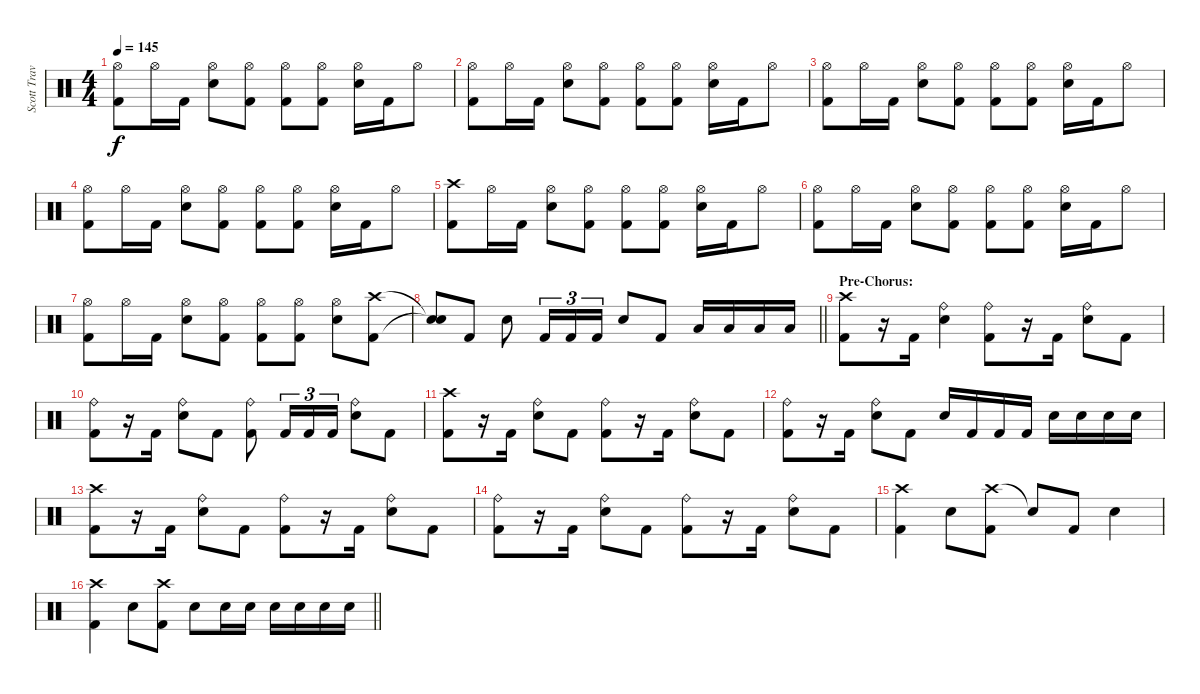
\track ("Scott Travis" "Scott Trav") {instrument percussion}
\staff {score}
\articulation defaults
\ts (4 4)
\tempo 145
\clef neutral
\ks c
("Hi-Hat (open)" "Kick (hit) 2").8{dy f} "Hi-Hat (open)".16 "Kick (hit) 2".16 ("Hi-Hat (open)" "Snare (hit) 2").8 ("Hi-Hat (open)" "Kick (hit) 2").8 ("Hi-Hat (open)" "Kick (hit) 2").8 ("Hi-Hat (open)" "Kick (hit) 2").8 ("Hi-Hat (open)" "Snare (hit) 2").16 "Kick (hit) 2".16 "Hi-Hat (open)".8 |
("Hi-Hat (open)" "Kick (hit) 2").8 "Hi-Hat (open)".16 "Kick (hit) 2".16 ("Hi-Hat (open)" "Snare (hit) 2").8 ("Hi-Hat (open)" "Kick (hit) 2").8 ("Hi-Hat (open)" "Kick (hit) 2").8 ("Hi-Hat (open)" "Kick (hit) 2").8 ("Hi-Hat (open)" "Snare (hit) 2").16 "Kick (hit) 2".16 "Hi-Hat (open)".8 |
("Hi-Hat (open)" "Kick (hit) 2").8 "Hi-Hat (open)".16 "Kick (hit) 2".16 ("Hi-Hat (open)" "Snare (hit) 2").8 ("Hi-Hat (open)" "Kick (hit) 2").8 ("Hi-Hat (open)" "Kick (hit) 2").8 ("Hi-Hat (open)" "Kick (hit) 2").8 ("Hi-Hat (open)" "Snare (hit) 2").16 "Kick (hit) 2".16 "Hi-Hat (open)".8 |
("Hi-Hat (open)" "Kick (hit) 2").8 "Hi-Hat (open)".16 "Kick (hit) 2".16 ("Hi-Hat (open)" "Snare (hit) 2").8 ("Hi-Hat (open)" "Kick (hit) 2").8 ("Hi-Hat (open)" "Kick (hit) 2").8 ("Hi-Hat (open)" "Kick (hit) 2").8 ("Hi-Hat (open)" "Snare (hit) 2").16 "Kick (hit) 2".16 "Hi-Hat (open)".8 |
("Crash high (hit)" "Kick (hit) 2").8 "Hi-Hat (open)".16 "Kick (hit) 2".16 ("Hi-Hat (open)" "Snare (hit) 2").8 ("Hi-Hat (open)" "Kick (hit) 2").8 ("Hi-Hat (open)" "Kick (hit) 2").8 ("Hi-Hat (open)" "Kick (hit) 2").8 ("Hi-Hat (open)" "Snare (hit) 2").16 "Kick (hit) 2".16 "Hi-Hat (open)".8 |
("Hi-Hat (open)" "Kick (hit) 2").8 "Hi-Hat (open)".16 "Kick (hit) 2".16 ("Hi-Hat (open)" "Snare (hit) 2").8 ("Hi-Hat (open)" "Kick (hit) 2").8 ("Hi-Hat (open)" "Kick (hit) 2").8 ("Hi-Hat (open)" "Kick (hit) 2").8 ("Hi-Hat (open)" "Snare (hit) 2").16 "Kick (hit) 2".16 "Hi-Hat (open)".8 |
("Hi-Hat (open)" "Kick (hit) 2").8 "Hi-Hat (open)".16 "Kick (hit) 2".16 ("Hi-Hat (open)" "Snare (hit) 2").8 ("Hi-Hat (open)" "Kick (hit) 2").8 ("Hi-Hat (open)" "Kick (hit) 2").8 ("Hi-Hat (open)" "Kick (hit) 2").8 ("Hi-Hat (open)" "Snare (hit) 2").8 ("Crash high (hit)" "Kick (hit) 2").8 |
\barLineRight lightlight
("Snare (hit)"{t} "Snare (hit)"{t}).8 "Kick (hit) 2".8 "Snare (hit) 2".8 "Kick (hit) 2".16{tu (3 2)} "Kick (hit) 2".16{tu (3 2)} "Kick (hit) 2".16{tu (3 2)} "Snare (hit) 2".8 "Kick (hit) 2".8 "Low Floor Tom (hit)".16 "Low Floor Tom (hit)".16 "Low Floor Tom (hit)".16 "Low Floor Tom (hit)".16 |
\section ("" "Pre-Chorus:")
("Crash high (hit)" "Kick (hit) 2").8 r.16 "Kick (hit) 2".16 ("Ride (bell)" "Snare (hit) 2").4 ("Ride (bell)" "Kick (hit) 2").8 r.16 "Kick (hit) 2".16 ("Ride (bell)" "Snare (hit) 2").8 "Kick (hit) 2".8 |
("Ride (bell)" "Kick (hit) 2").8 r.16 "Kick (hit) 2".16 ("Ride (bell)" "Snare (hit) 2").8 "Kick (hit) 2".8 ("Ride (bell)" "Kick (hit) 2").8 "Kick (hit) 2".16{tu (3 2)} "Kick (hit) 2".16{tu (3 2)} "Kick (hit) 2".16{tu (3 2)} ("Ride (bell)" "Snare (hit) 2").8 "Kick (hit) 2".8 |
("Crash high (hit)" "Kick (hit) 2").8 r.16 "Kick (hit) 2".16 ("Ride (bell)" "Snare (hit) 2").8 "Kick (hit) 2".8 ("Ride (bell)" "Kick (hit) 2").8 r.16 "Kick (hit) 2".16 ("Ride (bell)" "Snare (hit) 2").8 "Kick (hit) 2".8 |
("Ride (bell)" "Kick (hit) 2").8 r.16 "Kick (hit) 2".16 ("Ride (bell)" "Snare (hit) 2").8 "Kick (hit) 2".8 "Snare (hit) 2".16 "Kick (hit) 2".16 "Kick (hit) 2".16 "Kick (hit) 2".16 "Snare (hit) 2".16 "Snare (hit) 2".16 "Snare (hit) 2".16 "Snare (hit) 2".16 |
("Crash high (hit)" "Kick (hit) 2").8 r.16 "Kick (hit) 2".16 ("Ride (bell)" "Snare (hit) 2").8 "Kick (hit) 2".8 ("Ride (bell)" "Kick (hit) 2").8 r.16 "Kick (hit) 2".16 ("Ride (bell)" "Snare (hit) 2").8 "Kick (hit) 2".8 |
("Ride (bell)" "Kick (hit) 2").8 r.16 "Kick (hit) 2".16 ("Ride (bell)" "Snare (hit) 2").8 "Kick (hit) 2".8 ("Ride (bell)" "Kick (hit) 2").8 r.16 "Kick (hit) 2".16 ("Ride (bell)" "Snare (hit) 2").8 "Kick (hit) 2".8 |
("Crash high (hit)" "Kick (hit) 2").4 "Snare (hit) 2".8 ("Crash high (hit)" "Kick (hit) 2").8 "Snare (hit)"{t}.8 "Kick (hit) 2".8 "Snare (hit) 2".4 |
\barLineRight lightlight
("Crash high (hit)" "Kick (hit) 2").4 "Snare (hit) 2".8 ("Crash high (hit)" "Kick (hit) 2").8 "Snare (hit) 2".8 "Snare (hit) 2".16 "Snare (hit) 2".16 "Snare (hit) 2".16 "Snare (hit) 2".16 "Snare (hit) 2".16 "Snare (hit) 2".16
